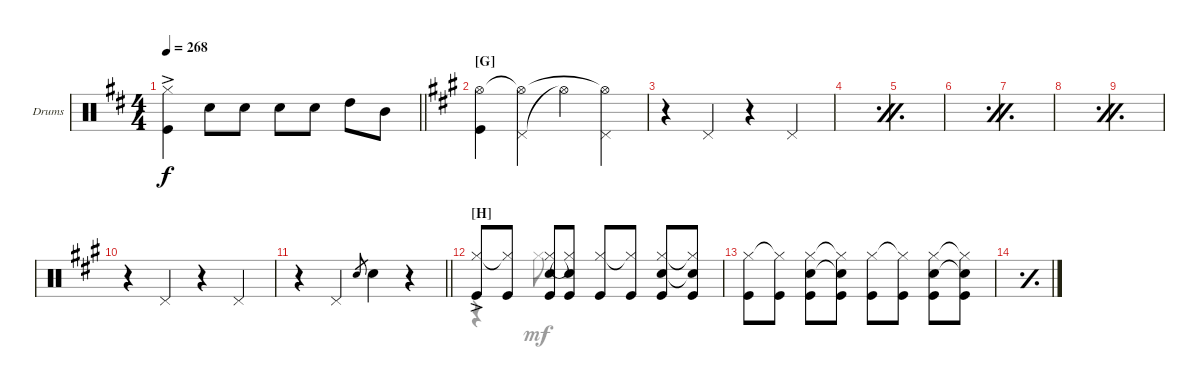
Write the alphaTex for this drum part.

\defaultSystemsLayout 4
\bracketExtendMode groupsimilarinstruments
\firstSystemTrackNameOrientation horizontal
\otherSystemsTrackNameOrientation horizontal
\track ("Stefan Kaufmann" "Drums") {instrument percussion}
\staff {score}
\articulation defaults
\voice
\ts (4 4)
\tempo 268
\clef neutral
\barLineRight lightlight
\ks d
("Hi-Hat (closed)"{ac} "Kick (hit)"{ac}).4{dy f} "Snare (hit) 2".8 "Snare (hit) 2".8 "Snare (hit) 2".8 "Snare (hit) 2".8 "High Tom (hit)".8 "Mid Tom (hit)".8 |
\section ("G" "")
\ks a
("Kick (hit)" "Hi-Hat (open)").4 ("Pedal Hi-Hat (hit)" "Hi-Hat (open)"{t}).4 "Hi-Hat (open)"{t}.4 ("Pedal Hi-Hat (hit)" "Hi-Hat (open)"{t}).4 |
r.4 "Pedal Hi-Hat (hit)".4 r.4 "Pedal Hi-Hat (hit)".4 |
\simile firstofdouble
|
\simile secondofdouble
|
\simile firstofdouble
|
\simile secondofdouble
|
\simile firstofdouble
|
\simile secondofdouble
|
\simile none
r.4 "Pedal Hi-Hat (hit)".4 r.4 "Pedal Hi-Hat (hit)".4 |
\barLineRight lightlight
r.4 "Pedal Hi-Hat (hit)".4 "Snare (hit) 2".8{gr} "Snare (hit) 2".4 r.4 |
\section ("H" "")
("Kick (hit)"{ac} "Hi-Hat (closed)"{ac}).8 ("Kick (hit)" "Hi-Hat (closed)"{t}).8 ("Kick (hit)" "Snare (hit) 2" "Hi-Hat (closed)").8 ("Kick (hit)" "Hi-Hat (closed)"{t} "Snare (hit) 2"{t}).8 ("Kick (hit)" "Hi-Hat (closed)").8 ("Kick (hit)" "Hi-Hat (closed)"{t}).8 ("Kick (hit)" "Hi-Hat (closed)" "Snare (hit) 2").8 ("Kick (hit)" "Hi-Hat (closed)"{t} "Snare (hit) 2"{t}).8 |
("Kick (hit)" "Hi-Hat (closed)").8 ("Kick (hit)" "Hi-Hat (closed)"{t}).8 ("Kick (hit)" "Hi-Hat (closed)" "Snare (hit) 2").8 ("Kick (hit)" "Hi-Hat (closed)"{t} "Snare (hit) 2"{t}).8 ("Kick (hit)" "Hi-Hat (closed)").8 ("Kick (hit)" "Hi-Hat (closed)"{t}).8 ("Kick (hit)" "Hi-Hat (closed)" "Snare (hit) 2").8 ("Kick (hit)" "Hi-Hat (closed)"{t} "Snare (hit) 2"{t}).8 |
\simile simple
|
|
\voice
\clef neutral
\ottava regular
\simile none
\barLineRight lightlight
\ks d
|
\ks a
|
|
\simile firstofdouble
|
\simile secondofdouble
|
\simile firstofdouble
|
\simile secondofdouble
|
\simile firstofdouble
|
\simile secondofdouble
|
\simile none
|
\barLineRight lightlight
|
|
|
\simile simple
|
|
\voice
\clef neutral
\ottava regular
\simile none
\barLineRight lightlight
\ks d
|
\ks a
|
|
\simile firstofdouble
|
\simile secondofdouble
|
\simile firstofdouble
|
\simile secondofdouble
|
\simile firstofdouble
|
\simile secondofdouble
|
\simile none
|
\barLineRight lightlight
|
r.4 "Hi-Hat (closed)".8{dy mf} |
|
\simile simple
|
|
